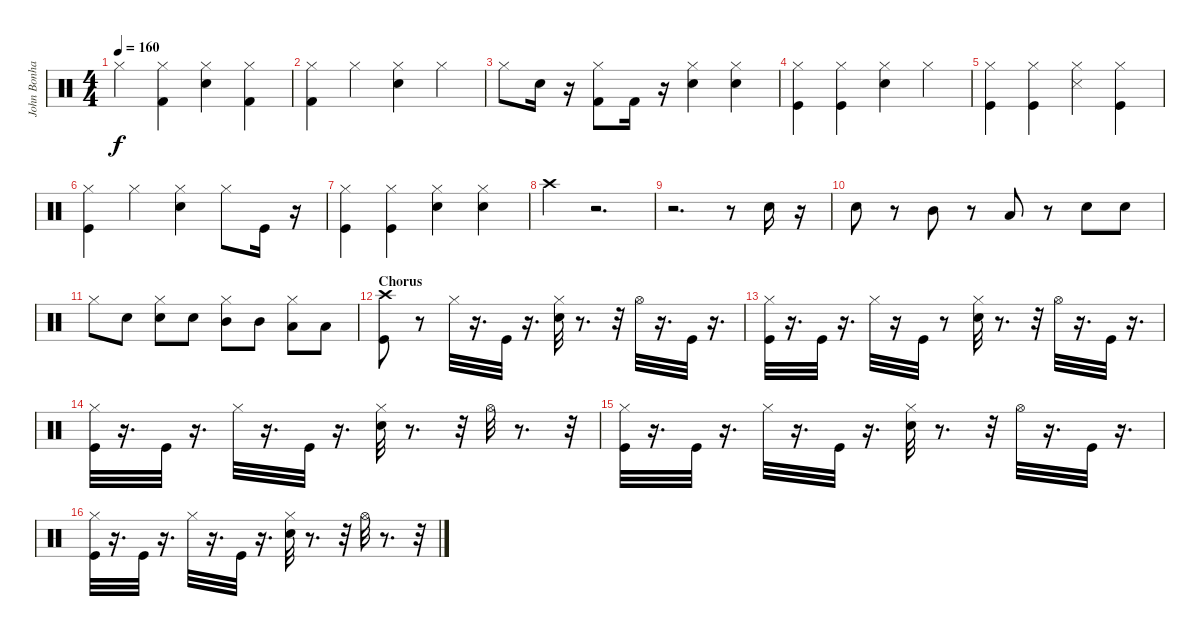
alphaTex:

\track ("John Bonham" "John Bonha") {instrument percussion}
\staff {score}
\articulation defaults
\ts (4 4)
\tempo 160
\clef neutral
\ks c "Hi-Hat (closed)".4{dy f}
("Hi-Hat (closed)" "Kick (hit) 2").4 ("Hi-Hat (closed)" "Snare (hit) 2").4 ("Hi-Hat (closed)" "Kick (hit) 2").4 |
("Kick (hit) 2" "Hi-Hat (closed)").4 "Hi-Hat (closed)".4 ("Snare (hit) 2" "Hi-Hat (closed)").4 "Hi-Hat (closed)".4 |
"Hi-Hat (closed)".8 "Snare (hit) 2".16 r.16 ("Kick (hit) 2" "Hi-Hat (closed)").8 "Kick (hit) 2".16 r.16 ("Snare (hit) 2" "Hi-Hat (closed)").4 ("Snare (hit) 2" "Hi-Hat (closed)").4 |
("Kick (hit)" "Hi-Hat (closed)").4 ("Kick (hit)" "Hi-Hat (closed)").4 ("Snare (hit) 2" "Hi-Hat (closed)").4 "Hi-Hat (closed)".4 |
("Kick (hit)" "Hi-Hat (closed)").4 ("Kick (hit)" "Hi-Hat (closed)").4 ("Snare (side stick) 3" "Hi-Hat (closed)").4 ("Kick (hit)" "Hi-Hat (closed)").4 |
("Kick (hit)" "Hi-Hat (closed)").4 "Hi-Hat (closed)".4 ("Snare (hit) 2" "Hi-Hat (closed)").4 "Hi-Hat (closed)".8 "Kick (hit)".16 r.16 |
("Kick (hit)" "Hi-Hat (closed)").4 ("Kick (hit)" "Hi-Hat (closed)").4 ("Snare (hit) 2" "Hi-Hat (closed)").4 ("Snare (hit) 2" "Hi-Hat (closed)").4 |
"Crash high (hit)".4 r.2{d} |
r.2{d} r.8 "Snare (hit) 2".16 r.16 |
"Snare (hit) 2".8 r.8 "Mid Tom (hit)".8 r.8 "Low Floor Tom (hit)".8 r.8 "Snare (hit) 2".8 "Snare (hit) 2".8 |
"Hi-Hat (closed)".8 "Snare (hit) 2".8 ("Hi-Hat (closed)" "Snare (hit) 2").8 "Snare (hit) 2".8 ("Mid Tom (hit)" "Hi-Hat (closed)").8 "Mid Tom (hit)".8 ("Low Floor Tom (hit)" "Hi-Hat (closed)").8 "Low Floor Tom (hit)".8 |
\section ("" "Chorus")
("Kick (hit)" "Crash high (hit)").8 r.8 "Hi-Hat (closed)".32 r.16{d} "Kick (hit)".32 r.16{d} ("Snare (hit) 2" "Hi-Hat (closed)").32 r.8{d} r.32 "Hi-Hat (open)".32 r.16{d} "Kick (hit)".32 r.16{d} |
("Hi-Hat (closed)" "Kick (hit)").32 r.16{d} "Kick (hit)".32 r.16{d} "Hi-Hat (closed)".32 r.16 "Kick (hit)".32 r.8 ("Snare (hit) 2" "Hi-Hat (closed)").32 r.8{d} r.32 "Hi-Hat (open)".32 r.16{d} "Kick (hit)".32 r.16{d} |
("Hi-Hat (closed)" "Kick (hit)").32 r.16{d} "Kick (hit)".32 r.16{d} "Hi-Hat (closed)".32 r.16{d} "Kick (hit)".32 r.16{d} ("Hi-Hat (closed)" "Snare (hit) 2").32 r.8{d} r.32 "Hi-Hat (open)".32 r.8{d} r.32 |
("Hi-Hat (closed)" "Kick (hit)").32 r.16{d} "Kick (hit)".32 r.16{d} "Hi-Hat (closed)".32 r.16{d} "Kick (hit)".32 r.16{d} ("Hi-Hat (closed)" "Snare (hit) 2").32 r.8{d} r.32 "Hi-Hat (open)".32 r.16{d} "Kick (hit)".32 r.16{d} |
("Hi-Hat (closed)" "Kick (hit)").32 r.16{d} "Kick (hit)".32 r.16{d} "Hi-Hat (closed)".32 r.16{d} "Kick (hit)".32 r.16{d} ("Hi-Hat (closed)" "Snare (hit) 2").32 r.8{d} r.32 "Hi-Hat (open)".32 r.8{d} r.32
